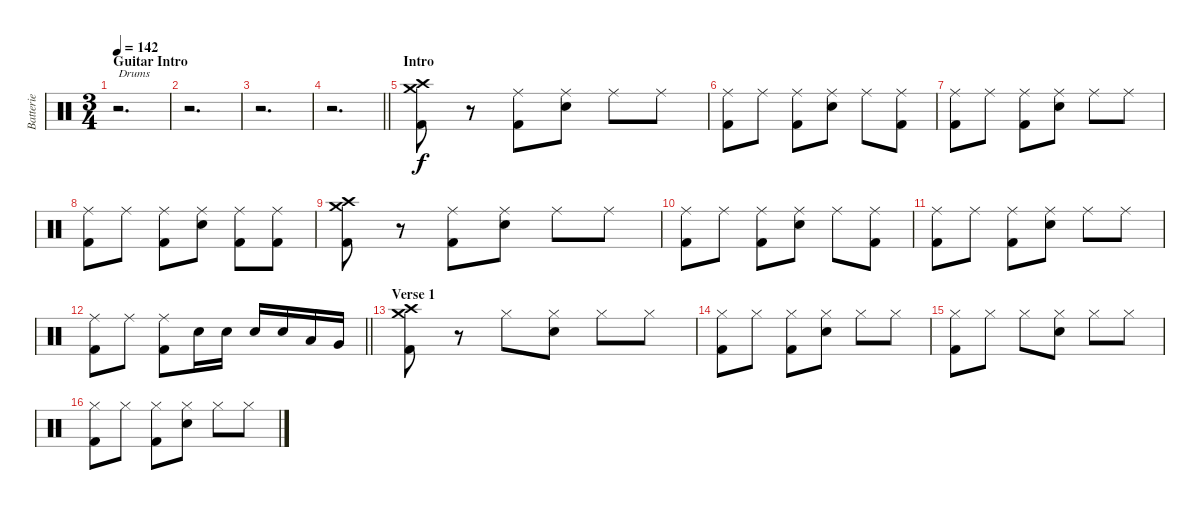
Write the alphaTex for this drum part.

\track ("Batterie" "Batterie") {instrument percussion}
\staff {score}
\articulation defaults
\ts (3 4)
\section ("" "Guitar Intro")
\tempo 142
\clef neutral
\ks c
r.2{d txt "Drums" dy f} |
r.2{d} |
r.2{d} |
\barLineRight lightlight
r.2{d} |
\section ("" "Intro")
("Crash medium (hit)" "Crash high (hit)" "Kick (hit) 2").8 r.8 ("Ride (middle)" "Kick (hit) 2").8 ("Ride (middle)" "Electric Snare (hit)").8 "Ride (middle)".8 "Ride (middle)".8 |
("Ride (middle)" "Kick (hit) 2").8 "Ride (middle)".8 ("Ride (middle)" "Kick (hit) 2").8 ("Ride (middle)" "Electric Snare (hit)").8 "Ride (middle)".8 ("Ride (middle)" "Kick (hit) 2").8 |
("Ride (middle)" "Kick (hit) 2").8 "Ride (middle)".8 ("Ride (middle)" "Kick (hit) 2").8 ("Ride (middle)" "Electric Snare (hit)").8 "Ride (middle)".8 "Ride (middle)".8 |
("Ride (middle)" "Kick (hit) 2").8 "Ride (middle)".8 ("Ride (middle)" "Kick (hit) 2").8 ("Ride (middle)" "Electric Snare (hit)").8 ("Ride (middle)" "Kick (hit) 2").8 ("Ride (middle)" "Kick (hit) 2").8 |
("Crash medium (hit)" "Crash high (hit)" "Kick (hit) 2").8 r.8 ("Ride (middle)" "Kick (hit) 2").8 ("Ride (middle)" "Electric Snare (hit)").8 "Ride (middle)".8 "Ride (middle)".8 |
("Ride (middle)" "Kick (hit) 2").8 "Ride (middle)".8 ("Ride (middle)" "Kick (hit) 2").8 ("Ride (middle)" "Electric Snare (hit)").8 "Ride (middle)".8 ("Ride (middle)" "Kick (hit) 2").8 |
("Ride (middle)" "Kick (hit) 2").8 "Ride (middle)".8 ("Ride (middle)" "Kick (hit) 2").8 ("Ride (middle)" "Electric Snare (hit)").8 "Ride (middle)".8 "Ride (middle)".8 |
\barLineRight lightlight
("Ride (middle)" "Kick (hit) 2").8 "Ride (middle)".8 ("Ride (middle)" "Kick (hit) 2").8 "Electric Snare (hit)".16 "Electric Snare (hit)".16 "Electric Snare (hit)".16 "Electric Snare (hit)".16 "Low Tom (hit)".16 "Very Low Tom (hit)".16 |
\section ("" "Verse 1")
("Crash medium (hit)" "Crash high (hit)" "Kick (hit) 2").8 r.8 "Hi-Hat (closed)".8 ("Hi-Hat (closed)" "Electric Snare (hit)").8 "Hi-Hat (closed)".8 "Hi-Hat (closed)".8 |
("Hi-Hat (closed)" "Kick (hit) 2").8 "Hi-Hat (closed)".8 ("Hi-Hat (closed)" "Kick (hit) 2").8 ("Hi-Hat (closed)" "Electric Snare (hit)").8 "Hi-Hat (closed)".8 "Hi-Hat (closed)".8 |
("Hi-Hat (closed)" "Kick (hit) 2").8 "Hi-Hat (closed)".8 "Hi-Hat (closed)".8 ("Hi-Hat (closed)" "Electric Snare (hit)").8 "Hi-Hat (closed)".8 "Hi-Hat (closed)".8 |
("Hi-Hat (closed)" "Kick (hit) 2").8 "Hi-Hat (closed)".8 ("Hi-Hat (closed)" "Kick (hit) 2").8 ("Hi-Hat (closed)" "Electric Snare (hit)").8 "Hi-Hat (closed)".8 "Hi-Hat (closed)".8
